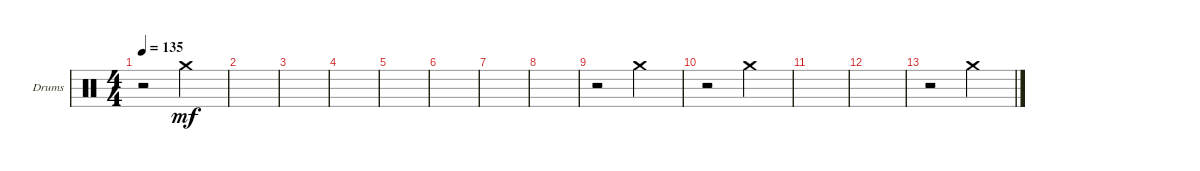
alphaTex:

\bracketExtendMode groupsimilarinstruments
\firstSystemTrackNameOrientation horizontal
\otherSystemsTrackNameOrientation horizontal
\track ("OH" "Drums") {instrument percussion}
\staff {score}
\articulation defaults
\ts (4 4)
\tempo 135
\clef neutral
\ks c
r.2{dy mf} "Crash medium (hit)".2 |
|
|
|
|
|
|
|
r.2 "Crash medium (hit)".2 |
r.2 "Crash medium (hit)".2 |
|
|
r.2 "Crash medium (hit)".2
